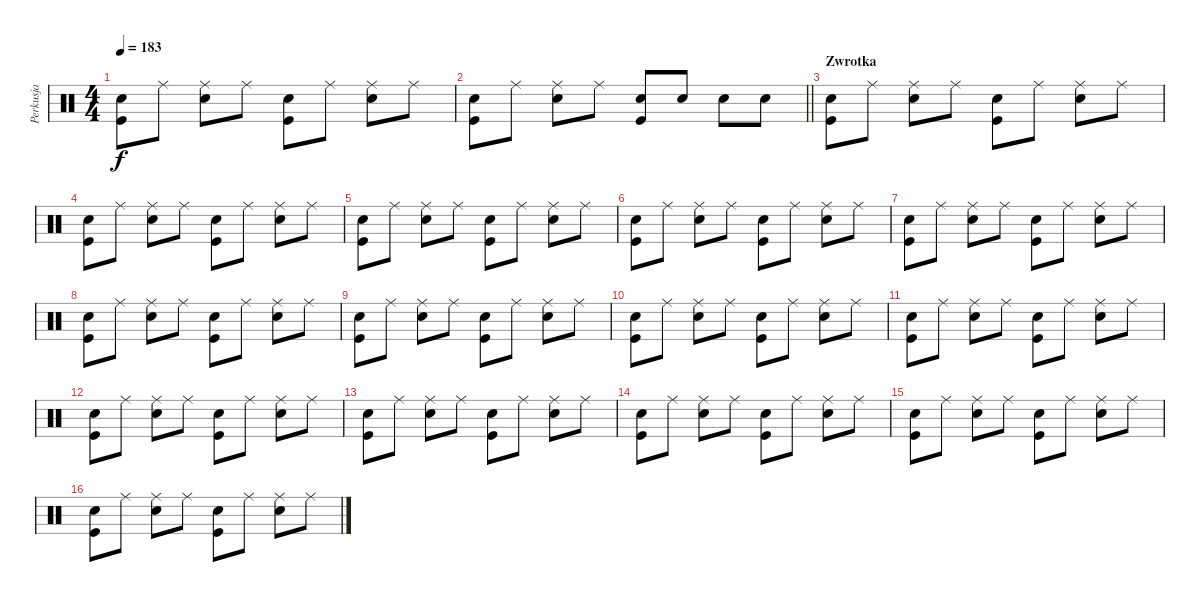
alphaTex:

\track ("Perkusja" "Perkusja") {instrument percussion}
\staff {score}
\articulation defaults
\ts (4 4)
\tempo 183
\clef neutral
\ks c
("Kick (hit)" "Snare (hit) 2").8{dy f} "Ride (middle)".8 ("Ride (middle)" "Snare (hit) 2").8 "Ride (middle)".8 ("Kick (hit)" "Snare (hit) 2").8 "Ride (middle)".8 ("Ride (middle)" "Snare (hit) 2").8 "Ride (middle)".8 |
\barLineRight lightlight
("Kick (hit)" "Snare (hit) 2").8 "Ride (middle)".8 ("Ride (middle)" "Snare (hit) 2").8 "Ride (middle)".8 ("Kick (hit)" "Snare (hit) 2").8 "Snare (hit) 2".8 "Snare (hit) 2".8 "Snare (hit) 2".8 |
\section ("" "Zwrotka")
("Kick (hit)" "Snare (hit) 2").8 "Ride (middle)".8 ("Ride (middle)" "Snare (hit) 2").8 "Ride (middle)".8 ("Kick (hit)" "Snare (hit) 2").8 "Ride (middle)".8 ("Ride (middle)" "Snare (hit) 2").8 "Ride (middle)".8 |
("Kick (hit)" "Snare (hit) 2").8 "Ride (middle)".8 ("Ride (middle)" "Snare (hit) 2").8 "Ride (middle)".8 ("Kick (hit)" "Snare (hit) 2").8 "Ride (middle)".8 ("Ride (middle)" "Snare (hit) 2").8 "Ride (middle)".8 |
("Kick (hit)" "Snare (hit) 2").8 "Ride (middle)".8 ("Ride (middle)" "Snare (hit) 2").8 "Ride (middle)".8 ("Kick (hit)" "Snare (hit) 2").8 "Ride (middle)".8 ("Ride (middle)" "Snare (hit) 2").8 "Ride (middle)".8 |
("Kick (hit)" "Snare (hit) 2").8 "Ride (middle)".8 ("Ride (middle)" "Snare (hit) 2").8 "Ride (middle)".8 ("Kick (hit)" "Snare (hit) 2").8 "Ride (middle)".8 ("Ride (middle)" "Snare (hit) 2").8 "Ride (middle)".8 |
("Kick (hit)" "Snare (hit) 2").8 "Ride (middle)".8 ("Ride (middle)" "Snare (hit) 2").8 "Ride (middle)".8 ("Kick (hit)" "Snare (hit) 2").8 "Ride (middle)".8 ("Ride (middle)" "Snare (hit) 2").8 "Ride (middle)".8 |
("Kick (hit)" "Snare (hit) 2").8 "Ride (middle)".8 ("Ride (middle)" "Snare (hit) 2").8 "Ride (middle)".8 ("Kick (hit)" "Snare (hit) 2").8 "Ride (middle)".8 ("Ride (middle)" "Snare (hit) 2").8 "Ride (middle)".8 |
("Kick (hit)" "Snare (hit) 2").8 "Ride (middle)".8 ("Ride (middle)" "Snare (hit) 2").8 "Ride (middle)".8 ("Kick (hit)" "Snare (hit) 2").8 "Ride (middle)".8 ("Ride (middle)" "Snare (hit) 2").8 "Ride (middle)".8 |
("Kick (hit)" "Snare (hit) 2").8 "Ride (middle)".8 ("Ride (middle)" "Snare (hit) 2").8 "Ride (middle)".8 ("Kick (hit)" "Snare (hit) 2").8 "Ride (middle)".8 ("Ride (middle)" "Snare (hit) 2").8 "Ride (middle)".8 |
("Kick (hit)" "Snare (hit) 2").8 "Ride (middle)".8 ("Ride (middle)" "Snare (hit) 2").8 "Ride (middle)".8 ("Kick (hit)" "Snare (hit) 2").8 "Ride (middle)".8 ("Ride (middle)" "Snare (hit) 2").8 "Ride (middle)".8 |
("Kick (hit)" "Snare (hit) 2").8 "Ride (middle)".8 ("Ride (middle)" "Snare (hit) 2").8 "Ride (middle)".8 ("Kick (hit)" "Snare (hit) 2").8 "Ride (middle)".8 ("Ride (middle)" "Snare (hit) 2").8 "Ride (middle)".8 |
("Kick (hit)" "Snare (hit) 2").8 "Ride (middle)".8 ("Ride (middle)" "Snare (hit) 2").8 "Ride (middle)".8 ("Kick (hit)" "Snare (hit) 2").8 "Ride (middle)".8 ("Ride (middle)" "Snare (hit) 2").8 "Ride (middle)".8 |
("Kick (hit)" "Snare (hit) 2").8 "Ride (middle)".8 ("Ride (middle)" "Snare (hit) 2").8 "Ride (middle)".8 ("Kick (hit)" "Snare (hit) 2").8 "Ride (middle)".8 ("Ride (middle)" "Snare (hit) 2").8 "Ride (middle)".8 |
("Kick (hit)" "Snare (hit) 2").8 "Ride (middle)".8 ("Ride (middle)" "Snare (hit) 2").8 "Ride (middle)".8 ("Kick (hit)" "Snare (hit) 2").8 "Ride (middle)".8 ("Ride (middle)" "Snare (hit) 2").8 "Ride (middle)".8 |
("Kick (hit)" "Snare (hit) 2").8 "Ride (middle)".8 ("Ride (middle)" "Snare (hit) 2").8 "Ride (middle)".8 ("Kick (hit)" "Snare (hit) 2").8 "Ride (middle)".8 ("Ride (middle)" "Snare (hit) 2").8 "Ride (middle)".8
